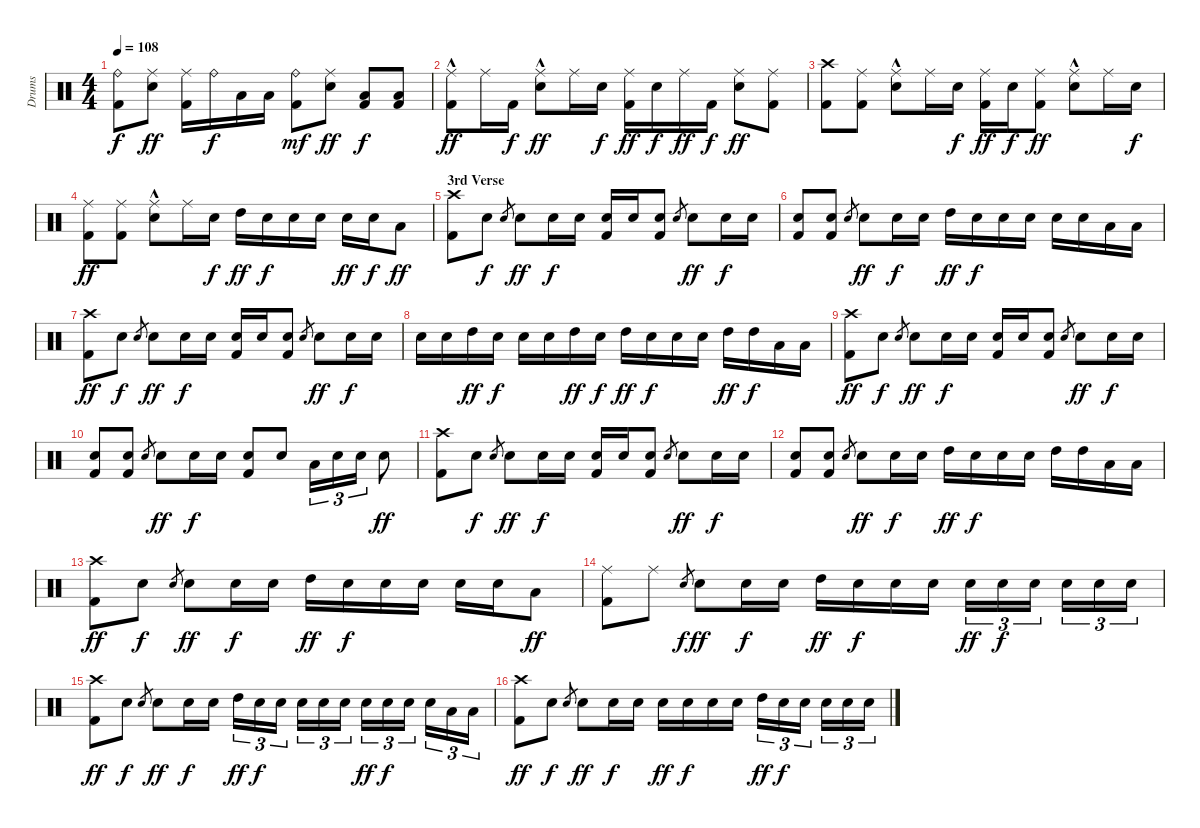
\track ("Drums" "Drums") {instrument percussion}
\staff {score}
\articulation defaults
\ts (4 4)
\tempo 108
\clef neutral
\ks c
("Ride (bell)" "Kick (hit) 2").8{dy f} ("Ride (middle)" "Electric Snare (hit)").8{dy ff} ("Ride (middle)" "Kick (hit) 2").16 "Ride (bell)".16{dy f} "Low Tom (hit)".16 "Low Tom (hit)".16 ("Ride (bell)" "Kick (hit) 2").8{dy mf} ("Ride (middle)" "Electric Snare (hit)").8{dy ff} ("Low Tom (hit)" "Kick (hit) 2").8{dy f} ("Low Tom (hit)" "Kick (hit) 2").8 |
("Ride (middle)" "Kick (hit) 2"{hac}).8{dy ff} "Ride (middle)".16 "Kick (hit) 2".16{dy f} ("Ride (middle)" "Electric Snare (hit)"{hac}).8{dy ff} "Ride (middle)".16 "Electric Snare (hit)".16{dy f} ("Ride (middle)" "Kick (hit) 2").16{dy ff} "Electric Snare (hit)".16{dy f} "Ride (middle)".16{dy ff} "Kick (hit) 2".16{dy f} ("Ride (middle)" "Electric Snare (hit)").8{dy ff} ("Ride (middle)" "Kick (hit) 2").8 |
("Crash high (hit)" "Kick (hit) 2").8 ("Ride (middle)" "Kick (hit) 2").8 ("Ride (middle)" "Electric Snare (hit)"{hac}).8 "Ride (middle)".16 "Electric Snare (hit)".16{dy f} ("Ride (middle)" "Kick (hit) 2").16{dy ff} "Electric Snare (hit)".16{dy f} ("Ride (middle)" "Kick (hit) 2").8{dy ff} ("Ride (middle)" "Electric Snare (hit)"{hac}).8 "Ride (middle)".16 "Electric Snare (hit)".16{dy f} |
("Ride (middle)" "Kick (hit) 2").8{dy ff} ("Ride (middle)" "Kick (hit) 2").8 ("Ride (middle)" "Electric Snare (hit)"{hac}).8 "Ride (middle)".16 "Electric Snare (hit)".16{dy f} "High Tom (hit)".16{dy ff} "Electric Snare (hit)".16{dy f} "Electric Snare (hit)".16 "Electric Snare (hit)".16 "Electric Snare (hit)".16{dy ff} "Electric Snare (hit)".16{dy f} "Low Tom (hit)".8{dy ff} |
\section ("" "3rd Verse")
("Crash high (hit)" "Kick (hit) 2").8 "Electric Snare (hit)".8{dy f} "Electric Snare (hit)".8{gr} "Electric Snare (hit)".8{dy ff} "Electric Snare (hit)".16{dy f} "Electric Snare (hit)".16 ("Electric Snare (hit)" "Kick (hit) 2").16 "Electric Snare (hit)".16 ("Electric Snare (hit)" "Kick (hit) 2").8 "Electric Snare (hit)".8{gr} "Electric Snare (hit)".8{dy ff} "Electric Snare (hit)".16{dy f} "Electric Snare (hit)".16 |
("Electric Snare (hit)" "Kick (hit) 2").8 ("Electric Snare (hit)" "Kick (hit) 2").8 "Electric Snare (hit)".8{gr} "Electric Snare (hit)".8{dy ff} "Electric Snare (hit)".16{dy f} "Electric Snare (hit)".16 "High Tom (hit)".16{dy ff} "Electric Snare (hit)".16{dy f} "Electric Snare (hit)".16 "Electric Snare (hit)".16 "Electric Snare (hit)".16 "Electric Snare (hit)".16 "Low Tom (hit)".16 "Low Tom (hit)".16 |
("Crash high (hit)" "Kick (hit) 2").8{dy ff} "Electric Snare (hit)".8{dy f} "Electric Snare (hit)".8{gr} "Electric Snare (hit)".8{dy ff} "Electric Snare (hit)".16{dy f} "Electric Snare (hit)".16 ("Electric Snare (hit)" "Kick (hit) 2").16 "Electric Snare (hit)".16 ("Electric Snare (hit)" "Kick (hit) 2").8 "Electric Snare (hit)".8{gr} "Electric Snare (hit)".8{dy ff} "Electric Snare (hit)".16{dy f} "Electric Snare (hit)".16 |
"Electric Snare (hit)".16 "Electric Snare (hit)".16 "High Tom (hit)".16{dy ff} "Electric Snare (hit)".16{dy f} "Electric Snare (hit)".16 "Electric Snare (hit)".16 "High Tom (hit)".16{dy ff} "Electric Snare (hit)".16{dy f} "High Tom (hit)".16{dy ff} "Electric Snare (hit)".16{dy f} "Electric Snare (hit)".16 "Electric Snare (hit)".16 "High Tom (hit)".16{dy ff} "High Tom (hit)".16{dy f} "Low Tom (hit)".16 "Low Tom (hit)".16 |
("Crash high (hit)" "Kick (hit) 2").8{dy ff} "Electric Snare (hit)".8{dy f} "Electric Snare (hit)".8{gr} "Electric Snare (hit)".8{dy ff} "Electric Snare (hit)".16{dy f} "Electric Snare (hit)".16 ("Electric Snare (hit)" "Kick (hit) 2").16 "Electric Snare (hit)".16 ("Electric Snare (hit)" "Kick (hit) 2").8 "Electric Snare (hit)".8{gr} "Electric Snare (hit)".8{dy ff} "Electric Snare (hit)".16{dy f} "Electric Snare (hit)".16 |
("Electric Snare (hit)" "Kick (hit) 2").8 ("Electric Snare (hit)" "Kick (hit) 2").8 "Electric Snare (hit)".8{gr} "Electric Snare (hit)".8{dy ff} "Electric Snare (hit)".16{dy f} "Electric Snare (hit)".16 ("Electric Snare (hit)" "Kick (hit) 2").8 "Electric Snare (hit)".8 "Low Tom (hit)".16{tu (3 2)} "Electric Snare (hit)".16{tu (3 2)} "Electric Snare (hit)".16{tu (3 2)} "Electric Snare (hit)".8{dy ff} |
("Crash high (hit)" "Kick (hit) 2").8 "Electric Snare (hit)".8{dy f} "Electric Snare (hit)".8{gr} "Electric Snare (hit)".8{dy ff} "Electric Snare (hit)".16{dy f} "Electric Snare (hit)".16 ("Electric Snare (hit)" "Kick (hit) 2").16 "Electric Snare (hit)".16 ("Electric Snare (hit)" "Kick (hit) 2").8 "Electric Snare (hit)".8{gr} "Electric Snare (hit)".8{dy ff} "Electric Snare (hit)".16{dy f} "Electric Snare (hit)".16 |
("Electric Snare (hit)" "Kick (hit) 2").8 ("Electric Snare (hit)" "Kick (hit) 2").8 "Electric Snare (hit)".8{gr} "Electric Snare (hit)".8{dy ff} "Electric Snare (hit)".16{dy f} "Electric Snare (hit)".16 "High Tom (hit)".16{dy ff} "Electric Snare (hit)".16{dy f} "Electric Snare (hit)".16 "Electric Snare (hit)".16 "High Tom (hit)".16 "High Tom (hit)".16 "Low Tom (hit)".16 "Low Tom (hit)".16 |
("Crash high (hit)" "Kick (hit) 2").8{dy ff} "Electric Snare (hit)".8{dy f} "Electric Snare (hit)".8{gr} "Electric Snare (hit)".8{dy ff} "Electric Snare (hit)".16{dy f} "Electric Snare (hit)".16 "High Tom (hit)".16{dy ff} "Electric Snare (hit)".16{dy f} "Electric Snare (hit)".16 "Electric Snare (hit)".16 "Electric Snare (hit)".16 "Electric Snare (hit)".16 "Low Tom (hit)".8{dy ff} |
("Ride (middle)" "Kick (hit) 2").8 "Ride (middle)".8 "Electric Snare (hit)".8{gr dy f} "Electric Snare (hit)".8{dy ff} "Electric Snare (hit)".16{dy f} "Electric Snare (hit)".16 "High Tom (hit)".16{dy ff} "Electric Snare (hit)".16{dy f} "Electric Snare (hit)".16 "Electric Snare (hit)".16 "Electric Snare (hit)".16{tu (3 2) dy ff} "Electric Snare (hit)".16{tu (3 2) dy f} "Electric Snare (hit)".16{tu (3 2)} "Electric Snare (hit)".16{tu (3 2)} "Electric Snare (hit)".16{tu (3 2)} "Electric Snare (hit)".16{tu (3 2)} |
("Crash high (hit)" "Kick (hit) 2").8{dy ff} "Electric Snare (hit)".8{dy f} "Electric Snare (hit)".8{gr} "Electric Snare (hit)".8{dy ff} "Electric Snare (hit)".16{dy f} "Electric Snare (hit)".16 "High Tom (hit)".16{tu (3 2) dy ff} "Electric Snare (hit)".16{tu (3 2) dy f} "Electric Snare (hit)".16{tu (3 2)} "Electric Snare (hit)".16{tu (3 2)} "Electric Snare (hit)".16{tu (3 2)} "Electric Snare (hit)".16{tu (3 2)} "Electric Snare (hit)".16{tu (3 2) dy ff} "Electric Snare (hit)".16{tu (3 2) dy f} "Electric Snare (hit)".16{tu (3 2)} "Electric Snare (hit)".16{tu (3 2)} "Low Tom (hit)".16{tu (3 2)} "Low Tom (hit)".16{tu (3 2)} |
("Crash high (hit)" "Kick (hit) 2").8{dy ff} "Electric Snare (hit)".8{dy f} "Electric Snare (hit)".8{gr} "Electric Snare (hit)".8{dy ff} "Electric Snare (hit)".16{dy f} "Electric Snare (hit)".16 "Electric Snare (hit)".16{dy ff} "Electric Snare (hit)".16{dy f} "Electric Snare (hit)".16 "Electric Snare (hit)".16 "High Tom (hit)".16{tu (3 2) dy ff} "Electric Snare (hit)".16{tu (3 2) dy f} "Electric Snare (hit)".16{tu (3 2)} "Electric Snare (hit)".16{tu (3 2)} "Electric Snare (hit)".16{tu (3 2)} "Electric Snare (hit)".16{tu (3 2)}
